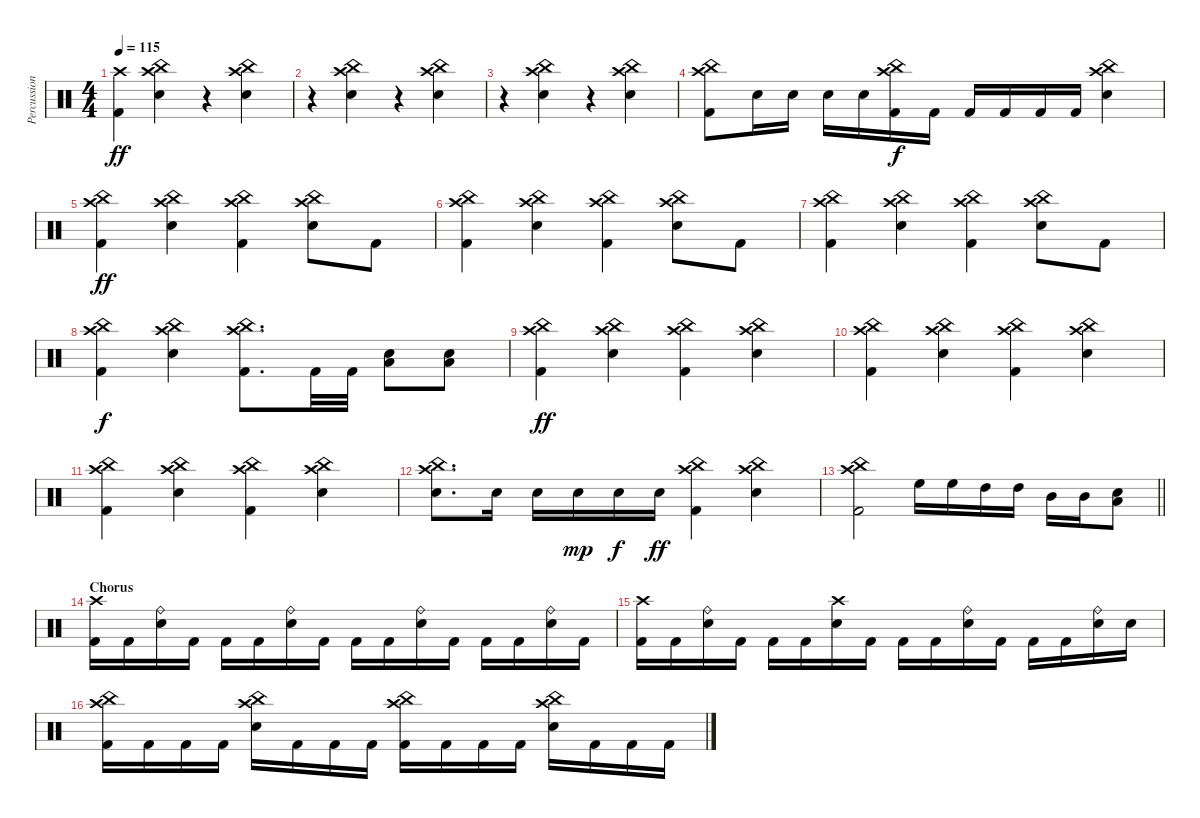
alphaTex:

\track ("Percussion" "Percussion") {instrument percussion}
\staff {score}
\articulation defaults
\ts (4 4)
\tempo 115
\clef neutral
\ks c
("Kick (hit) 2" "Crash high (hit)").4{dy ff} ("Electric Snare (hit)" "Crash high (hit)" "China (hit)").4 r.4 ("Electric Snare (hit)" "Crash high (hit)" "China (hit)").4 |
r.4 ("Electric Snare (hit)" "Crash high (hit)" "China (hit)").4 r.4 ("Electric Snare (hit)" "Crash high (hit)" "China (hit)").4 |
r.4 ("Electric Snare (hit)" "Crash high (hit)" "China (hit)").4 r.4 ("Electric Snare (hit)" "Crash high (hit)" "China (hit)").4 |
("Kick (hit) 2" "Crash high (hit)" "China (hit)").8 "Electric Snare (hit)".16 "Electric Snare (hit)".16 "Electric Snare (hit)".16 "Electric Snare (hit)".16 ("Kick (hit) 2" "Crash high (hit)" "China (hit)").16{dy f} "Kick (hit) 2".16 "Kick (hit) 2".16 "Kick (hit) 2".16 "Kick (hit) 2".16 "Kick (hit) 2".16 ("Electric Snare (hit)" "Crash high (hit)" "China (hit)").4 |
("Kick (hit) 2" "Crash high (hit)" "China (hit)").4{dy ff} ("Electric Snare (hit)" "Crash high (hit)" "China (hit)").4 ("Kick (hit) 2" "Crash high (hit)" "China (hit)").4 ("Electric Snare (hit)" "Crash high (hit)" "China (hit)").8 "Kick (hit) 2".8 |
("Kick (hit) 2" "Crash high (hit)" "China (hit)").4 ("Electric Snare (hit)" "Crash high (hit)" "China (hit)").4 ("Kick (hit) 2" "Crash high (hit)" "China (hit)").4 ("Electric Snare (hit)" "Crash high (hit)" "China (hit)").8 "Kick (hit) 2".8 |
("Kick (hit) 2" "Crash high (hit)" "China (hit)").4 ("Electric Snare (hit)" "Crash high (hit)" "China (hit)").4 ("Kick (hit) 2" "Crash high (hit)" "China (hit)").4 ("Electric Snare (hit)" "Crash high (hit)" "China (hit)").8 "Kick (hit) 2".8 |
("Kick (hit) 2" "Crash high (hit)" "China (hit)").4{dy f} ("Electric Snare (hit)" "Crash high (hit)" "China (hit)").4 ("Kick (hit) 2" "Crash high (hit)" "China (hit)").8{d} "Kick (hit) 2".32 "Kick (hit) 2".32 ("Electric Snare (hit)" "Low Tom (hit)").8 ("Electric Snare (hit)" "Low Tom (hit)").8 |
("Kick (hit) 2" "Crash high (hit)" "China (hit)").4{dy ff} ("Electric Snare (hit)" "Crash high (hit)" "China (hit)").4 ("Kick (hit) 2" "Crash high (hit)" "China (hit)").4 ("Electric Snare (hit)" "Crash high (hit)" "China (hit)").4 |
("Kick (hit) 2" "Crash high (hit)" "China (hit)").4 ("Electric Snare (hit)" "Crash high (hit)" "China (hit)").4 ("Kick (hit) 2" "Crash high (hit)" "China (hit)").4 ("Electric Snare (hit)" "Crash high (hit)" "China (hit)").4 |
("Kick (hit) 2" "Crash high (hit)" "China (hit)").4 ("Electric Snare (hit)" "Crash high (hit)" "China (hit)").4 ("Kick (hit) 2" "Crash high (hit)" "China (hit)").4 ("Electric Snare (hit)" "Crash high (hit)" "China (hit)").4 |
("Electric Snare (hit)" "Crash high (hit)" "China (hit)").8{d} "Electric Snare (hit)".16 "Electric Snare (hit)".16 "Electric Snare (hit)".16{dy mp} "Electric Snare (hit)".16{dy f} "Electric Snare (hit)".16{dy ff} ("Kick (hit) 2" "Crash high (hit)" "China (hit)").4 ("Electric Snare (hit)" "Crash high (hit)" "China (hit)").4 |
\barLineRight lightlight
("Kick (hit) 2" "Crash high (hit)" "China (hit)").2 "High Floor Tom (hit)".16 "High Floor Tom (hit)".16 "High Tom (hit)".16 "High Tom (hit)".16 "Mid Tom (hit)".16 "Mid Tom (hit)".16 ("Electric Snare (hit)" "Low Tom (hit)").8 |
\section ("" "Chorus")
("Kick (hit) 2" "Crash high (hit)").16 "Kick (hit) 2".16 ("Electric Snare (hit)" "Ride (bell)").16 "Kick (hit) 2".16 "Kick (hit) 2".16 "Kick (hit) 2".16 ("Electric Snare (hit)" "Ride (bell)").16 "Kick (hit) 2".16 "Kick (hit) 2".16 "Kick (hit) 2".16 ("Electric Snare (hit)" "Ride (bell)").16 "Kick (hit) 2".16 "Kick (hit) 2".16 "Kick (hit) 2".16 ("Electric Snare (hit)" "Ride (bell)").16 "Kick (hit) 2".16 |
("Kick (hit) 2" "Crash high (hit)").16 "Kick (hit) 2".16 ("Electric Snare (hit)" "Ride (bell)").16 "Kick (hit) 2".16 "Kick (hit) 2".16 "Kick (hit) 2".16 ("Electric Snare (hit)" "Crash high (hit)").16 "Kick (hit) 2".16 "Kick (hit) 2".16 "Kick (hit) 2".16 ("Electric Snare (hit)" "Ride (bell)").16 "Kick (hit) 2".16 "Kick (hit) 2".16 "Kick (hit) 2".16 ("Electric Snare (hit)" "Ride (bell)").16 "Electric Snare (hit)".16 |
("Kick (hit) 2" "Crash high (hit)" "China (hit)").16 "Kick (hit) 2".16 "Kick (hit) 2".16 "Kick (hit) 2".16 ("Electric Snare (hit)" "Crash high (hit)" "China (hit)").16 "Kick (hit) 2".16 "Kick (hit) 2".16 "Kick (hit) 2".16 ("Kick (hit) 2" "Crash high (hit)" "China (hit)").16 "Kick (hit) 2".16 "Kick (hit) 2".16 "Kick (hit) 2".16 ("Electric Snare (hit)" "Crash high (hit)" "China (hit)").16 "Kick (hit) 2".16 "Kick (hit) 2".16 "Kick (hit) 2".16
